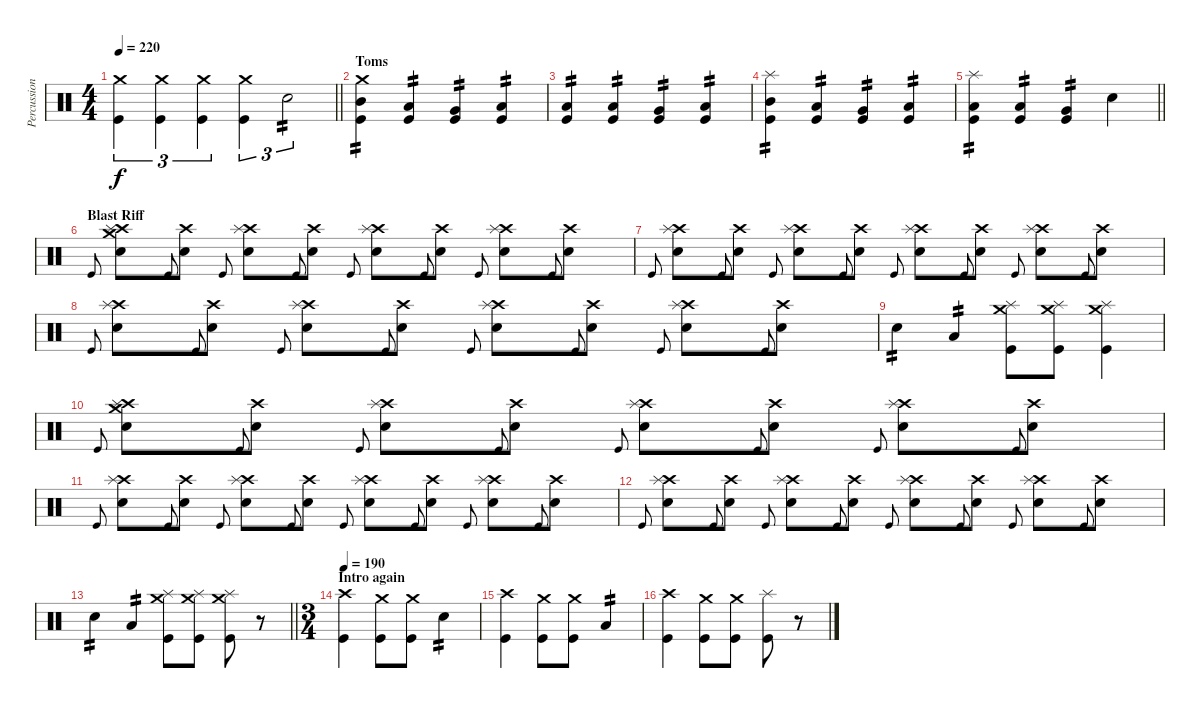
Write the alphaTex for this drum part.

\track ("Percussion" "Percussion") {instrument percussion}
\staff {score}
\articulation defaults
\ts (4 4)
\tempo 220
\clef neutral
\barLineRight lightlight
\ks c
("Crash medium (hit)" "Kick (hit)").4{tu (3 2) dy f} ("Crash medium (hit)" "Kick (hit)").4{tu (3 2)} ("Crash medium (hit)" "Kick (hit)").4{tu (3 2)} ("Crash medium (hit)" "Kick (hit)").4{tu (3 2)} "Snare (hit) 2".2{tu (3 2) tp 2} |
\section ("" "Toms")
("Crash medium (hit)" "Mid Tom (hit)" "Kick (hit)").4{tp 2} ("Low Tom (hit)" "Kick (hit)").4{tp 2} ("Very Low Tom (hit)" "Kick (hit)").4{tp 2} ("Low Floor Tom (hit)" "Kick (hit)").4{tp 2} |
("Low Tom (hit)" "Kick (hit)").4{tp 2} ("Low Tom (hit)" "Kick (hit)").4{tp 2} ("Very Low Tom (hit)" "Kick (hit)").4{tp 2} ("Low Floor Tom (hit)" "Kick (hit)").4{tp 2} |
("Splash (hit)" "Mid Tom (hit)" "Kick (hit)").4{tp 2} ("Low Tom (hit)" "Kick (hit)").4{tp 2} ("Very Low Tom (hit)" "Kick (hit)").4{tp 2} ("Low Floor Tom (hit)" "Kick (hit)").4{tp 2} |
\barLineRight lightlight
("Splash (hit)" "Low Tom (hit)" "Kick (hit)").4{tp 2} ("Low Tom (hit)" "Kick (hit)").4{tp 2} ("Very Low Tom (hit)" "Kick (hit)").4{tp 2} "Snare (hit) 2".4 |
\section ("" "Blast Riff")
"Kick (hit)".8{gr onbeat} ("Crash medium (hit)" "Crash high (hit)" "Splash (hit)" "Snare (hit) 2").8 "Kick (hit)".8{gr onbeat} ("Crash high (hit)" "Snare (hit) 2").8 "Kick (hit)".8{gr onbeat} ("Crash high (hit)" "Splash (hit)" "Snare (hit) 2").8 "Kick (hit)".8{gr onbeat} ("Crash high (hit)" "Snare (hit) 2").8 "Kick (hit)".8{gr onbeat} ("Crash high (hit)" "Splash (hit)" "Snare (hit) 2").8 "Kick (hit)".8{gr onbeat} ("Crash high (hit)" "Snare (hit) 2").8 "Kick (hit)".8{gr onbeat} ("Crash high (hit)" "Splash (hit)" "Snare (hit) 2").8 "Kick (hit)".8{gr onbeat} ("Crash high (hit)" "Snare (hit) 2").8 |
"Kick (hit)".8{gr onbeat} ("Crash high (hit)" "Splash (hit)" "Snare (hit) 2").8 "Kick (hit)".8{gr onbeat} ("Crash high (hit)" "Snare (hit) 2").8 "Kick (hit)".8{gr onbeat} ("Crash high (hit)" "Splash (hit)" "Snare (hit) 2").8 "Kick (hit)".8{gr onbeat} ("Crash high (hit)" "Snare (hit) 2").8 "Kick (hit)".8{gr onbeat} ("Crash high (hit)" "Splash (hit)" "Snare (hit) 2").8 "Kick (hit)".8{gr onbeat} ("Crash high (hit)" "Snare (hit) 2").8 "Kick (hit)".8{gr onbeat} ("Crash high (hit)" "Splash (hit)" "Snare (hit) 2").8 "Kick (hit)".8{gr onbeat} ("Crash high (hit)" "Snare (hit) 2").8 |
"Kick (hit)".8{gr onbeat} ("Crash high (hit)" "Splash (hit)" "Snare (hit) 2").8 "Kick (hit)".8{gr onbeat} ("Crash high (hit)" "Snare (hit) 2").8 "Kick (hit)".8{gr onbeat} ("Crash high (hit)" "Splash (hit)" "Snare (hit) 2").8 "Kick (hit)".8{gr onbeat} ("Crash high (hit)" "Snare (hit) 2").8 "Kick (hit)".8{gr onbeat} ("Crash high (hit)" "Splash (hit)" "Snare (hit) 2").8 "Kick (hit)".8{gr onbeat} ("Crash high (hit)" "Snare (hit) 2").8 "Kick (hit)".8{gr onbeat} ("Crash high (hit)" "Splash (hit)" "Snare (hit) 2").8 "Kick (hit)".8{gr onbeat} ("Crash high (hit)" "Snare (hit) 2").8 |
"Snare (hit) 2".4{tp 2} "Low Tom (hit)".4{tp 2} ("Splash (hit)" "Crash medium (hit)" "Kick (hit)").8 ("Splash (hit)" "Crash medium (hit)" "Kick (hit)").8 ("Splash (hit)" "Crash medium (hit)" "Kick (hit)").4 |
"Kick (hit)".8{gr onbeat} ("Crash medium (hit)" "Crash high (hit)" "Splash (hit)" "Snare (hit) 2").8 "Kick (hit)".8{gr onbeat} ("Crash high (hit)" "Snare (hit) 2").8 "Kick (hit)".8{gr onbeat} ("Crash high (hit)" "Splash (hit)" "Snare (hit) 2").8 "Kick (hit)".8{gr onbeat} ("Crash high (hit)" "Snare (hit) 2").8 "Kick (hit)".8{gr onbeat} ("Crash high (hit)" "Splash (hit)" "Snare (hit) 2").8 "Kick (hit)".8{gr onbeat} ("Crash high (hit)" "Snare (hit) 2").8 "Kick (hit)".8{gr onbeat} ("Crash high (hit)" "Splash (hit)" "Snare (hit) 2").8 "Kick (hit)".8{gr onbeat} ("Crash high (hit)" "Snare (hit) 2").8 |
"Kick (hit)".8{gr onbeat} ("Crash high (hit)" "Splash (hit)" "Snare (hit) 2").8 "Kick (hit)".8{gr onbeat} ("Crash high (hit)" "Snare (hit) 2").8 "Kick (hit)".8{gr onbeat} ("Crash high (hit)" "Splash (hit)" "Snare (hit) 2").8 "Kick (hit)".8{gr onbeat} ("Crash high (hit)" "Snare (hit) 2").8 "Kick (hit)".8{gr onbeat} ("Crash high (hit)" "Splash (hit)" "Snare (hit) 2").8 "Kick (hit)".8{gr onbeat} ("Crash high (hit)" "Snare (hit) 2").8 "Kick (hit)".8{gr onbeat} ("Crash high (hit)" "Splash (hit)" "Snare (hit) 2").8 "Kick (hit)".8{gr onbeat} ("Crash high (hit)" "Snare (hit) 2").8 |
"Kick (hit)".8{gr onbeat} ("Crash high (hit)" "Splash (hit)" "Snare (hit) 2").8 "Kick (hit)".8{gr onbeat} ("Crash high (hit)" "Snare (hit) 2").8 "Kick (hit)".8{gr onbeat} ("Crash high (hit)" "Splash (hit)" "Snare (hit) 2").8 "Kick (hit)".8{gr onbeat} ("Crash high (hit)" "Snare (hit) 2").8 "Kick (hit)".8{gr onbeat} ("Crash high (hit)" "Splash (hit)" "Snare (hit) 2").8 "Kick (hit)".8{gr onbeat} ("Crash high (hit)" "Snare (hit) 2").8 "Kick (hit)".8{gr onbeat} ("Crash high (hit)" "Splash (hit)" "Snare (hit) 2").8 "Kick (hit)".8{gr onbeat} ("Crash high (hit)" "Snare (hit) 2").8 |
\barLineRight lightlight "Snare (hit) 2".4{tp 2} "Low Tom (hit)".4{tp 2}
("Splash (hit)" "Crash medium (hit)" "Kick (hit)").8 ("Splash (hit)" "Crash medium (hit)" "Kick (hit)").8 ("Splash (hit)" "Crash medium (hit)" "Kick (hit)").8 r.8 |
\ts (3 4)
\section ("" "Intro again")
\tempo 190
("Crash high (hit)" "Kick (hit)").4 ("Crash medium (hit)" "Kick (hit)").8 ("Crash medium (hit)" "Kick (hit)").8 "Snare (hit) 2".4{tp 2} |
("Crash high (hit)" "Kick (hit)").4 ("Crash medium (hit)" "Kick (hit)").8 ("Crash medium (hit)" "Kick (hit)").8 "Low Tom (hit)".4{tp 2} |
("Crash high (hit)" "Kick (hit)").4 ("Crash medium (hit)" "Kick (hit)").8 ("Crash medium (hit)" "Kick (hit)").8 ("Splash (hit)" "Kick (hit)").8 r.8
